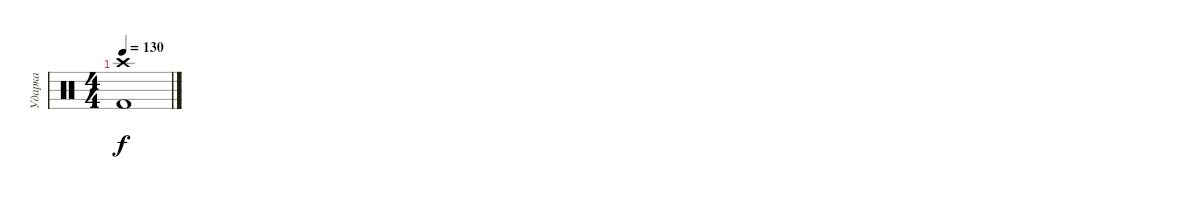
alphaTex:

\track ("Ударка" "Ударка") {instrument percussion}
\staff {score}
\articulation defaults
\ts (4 4)
\tempo 130
\clef neutral
\ks c
("Crash high (hit)" "Kick (hit) 2").1{dy f}
